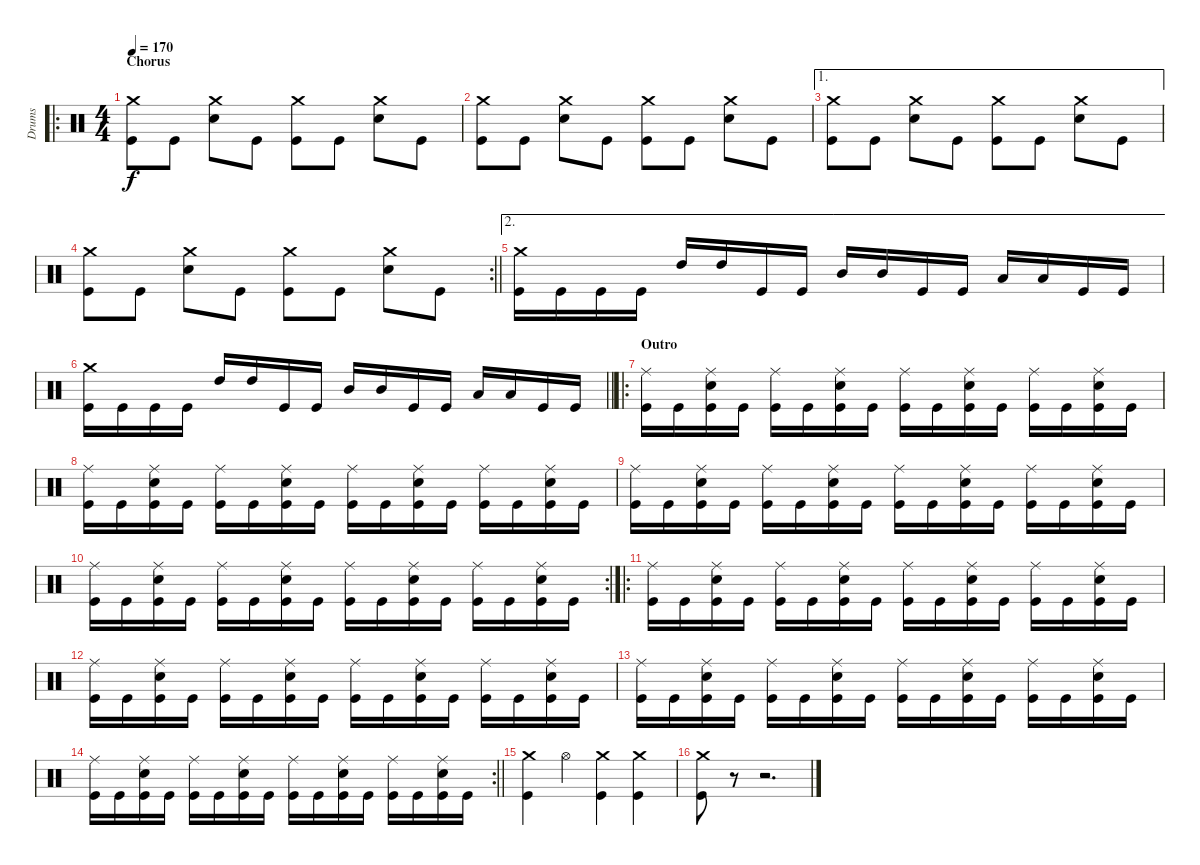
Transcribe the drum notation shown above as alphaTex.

\track ("Drums" "Drums") {instrument percussion}
\staff {score}
\articulation defaults
\ro
\ts (4 4)
\section ("" "Chorus")
\tempo 170
\clef neutral
\ks c
("Crash medium (hit)" "Kick (hit)").8{dy f} "Kick (hit)".8 ("Crash medium (hit)" "Snare (hit) 2").8 "Kick (hit)".8 ("Crash medium (hit)" "Kick (hit)").8 "Kick (hit)".8 ("Crash medium (hit)" "Snare (hit) 2").8 "Kick (hit)".8 |
("Crash medium (hit)" "Kick (hit)").8 "Kick (hit)".8 ("Crash medium (hit)" "Snare (hit) 2").8 "Kick (hit)".8 ("Crash medium (hit)" "Kick (hit)").8 "Kick (hit)".8 ("Crash medium (hit)" "Snare (hit) 2").8 "Kick (hit)".8 |
\ae 1
("Crash medium (hit)" "Kick (hit)").8 "Kick (hit)".8 ("Crash medium (hit)" "Snare (hit) 2").8 "Kick (hit)".8 ("Crash medium (hit)" "Kick (hit)").8 "Kick (hit)".8 ("Crash medium (hit)" "Snare (hit) 2").8 "Kick (hit)".8 |
\rc 2
\barLineRight lightlight
("Crash medium (hit)" "Kick (hit)").8 "Kick (hit)".8 ("Crash medium (hit)" "Snare (hit) 2").8 "Kick (hit)".8 ("Crash medium (hit)" "Kick (hit)").8 "Kick (hit)".8 ("Crash medium (hit)" "Snare (hit) 2").8 "Kick (hit)".8 |
\ae 2
("Crash medium (hit)" "Kick (hit)").16 "Kick (hit)".16 "Kick (hit)".16 "Kick (hit)".16 "High Tom (hit)".16 "High Tom (hit)".16 "Kick (hit)".16 "Kick (hit)".16 "Mid Tom (hit)".16 "Mid Tom (hit)".16 "Kick (hit)".16 "Kick (hit)".16 "Low Floor Tom (hit)".16 "Low Floor Tom (hit)".16 "Kick (hit)".16 "Kick (hit)".16 |
\barLineRight lightlight
("Crash medium (hit)" "Kick (hit)").16 "Kick (hit)".16 "Kick (hit)".16 "Kick (hit)".16 "High Tom (hit)".16 "High Tom (hit)".16 "Kick (hit)".16 "Kick (hit)".16 "Mid Tom (hit)".16 "Mid Tom (hit)".16 "Kick (hit)".16 "Kick (hit)".16 "Low Floor Tom (hit)".16 "Low Floor Tom (hit)".16 "Kick (hit)".16 "Kick (hit)".16 |
\ro
\section ("" "Outro")
("Ride (middle)" "Kick (hit)").16 "Kick (hit)".16 ("Ride (middle)" "Snare (hit) 2" "Kick (hit)").16 "Kick (hit)".16 ("Ride (middle)" "Kick (hit)").16 "Kick (hit)".16 ("Ride (middle)" "Snare (hit) 2" "Kick (hit)").16 "Kick (hit)".16 ("Ride (middle)" "Kick (hit)").16 "Kick (hit)".16 ("Ride (middle)" "Snare (hit) 2" "Kick (hit)").16 "Kick (hit)".16 ("Ride (middle)" "Kick (hit)").16 "Kick (hit)".16 ("Ride (middle)" "Snare (hit) 2" "Kick (hit)").16 "Kick (hit)".16 |
("Ride (middle)" "Kick (hit)").16 "Kick (hit)".16 ("Ride (middle)" "Snare (hit) 2" "Kick (hit)").16 "Kick (hit)".16 ("Ride (middle)" "Kick (hit)").16 "Kick (hit)".16 ("Ride (middle)" "Snare (hit) 2" "Kick (hit)").16 "Kick (hit)".16 ("Ride (middle)" "Kick (hit)").16 "Kick (hit)".16 ("Ride (middle)" "Snare (hit) 2" "Kick (hit)").16 "Kick (hit)".16 ("Ride (middle)" "Kick (hit)").16 "Kick (hit)".16 ("Ride (middle)" "Snare (hit) 2" "Kick (hit)").16 "Kick (hit)".16 |
("Ride (middle)" "Kick (hit)").16 "Kick (hit)".16 ("Ride (middle)" "Snare (hit) 2" "Kick (hit)").16 "Kick (hit)".16 ("Ride (middle)" "Kick (hit)").16 "Kick (hit)".16 ("Ride (middle)" "Snare (hit) 2" "Kick (hit)").16 "Kick (hit)".16 ("Ride (middle)" "Kick (hit)").16 "Kick (hit)".16 ("Ride (middle)" "Snare (hit) 2" "Kick (hit)").16 "Kick (hit)".16 ("Ride (middle)" "Kick (hit)").16 "Kick (hit)".16 ("Ride (middle)" "Snare (hit) 2" "Kick (hit)").16 "Kick (hit)".16 |
\rc 2
("Ride (middle)" "Kick (hit)").16 "Kick (hit)".16 ("Ride (middle)" "Snare (hit) 2" "Kick (hit)").16 "Kick (hit)".16 ("Ride (middle)" "Kick (hit)").16 "Kick (hit)".16 ("Ride (middle)" "Snare (hit) 2" "Kick (hit)").16 "Kick (hit)".16 ("Ride (middle)" "Kick (hit)").16 "Kick (hit)".16 ("Ride (middle)" "Snare (hit) 2" "Kick (hit)").16 "Kick (hit)".16 ("Ride (middle)" "Kick (hit)").16 "Kick (hit)".16 ("Ride (middle)" "Snare (hit) 2" "Kick (hit)").16 "Kick (hit)".16 |
\ro
("Ride (middle)" "Kick (hit)").16 "Kick (hit)".16 ("Ride (middle)" "Snare (hit) 2" "Kick (hit)").16 "Kick (hit)".16 ("Ride (middle)" "Kick (hit)").16 "Kick (hit)".16 ("Ride (middle)" "Snare (hit) 2" "Kick (hit)").16 "Kick (hit)".16 ("Ride (middle)" "Kick (hit)").16 "Kick (hit)".16 ("Ride (middle)" "Snare (hit) 2" "Kick (hit)").16 "Kick (hit)".16 ("Ride (middle)" "Kick (hit)").16 "Kick (hit)".16 ("Ride (middle)" "Snare (hit) 2" "Kick (hit)").16 "Kick (hit)".16 |
("Ride (middle)" "Kick (hit)").16 "Kick (hit)".16 ("Ride (middle)" "Snare (hit) 2" "Kick (hit)").16 "Kick (hit)".16 ("Ride (middle)" "Kick (hit)").16 "Kick (hit)".16 ("Ride (middle)" "Snare (hit) 2" "Kick (hit)").16 "Kick (hit)".16 ("Ride (middle)" "Kick (hit)").16 "Kick (hit)".16 ("Ride (middle)" "Snare (hit) 2" "Kick (hit)").16 "Kick (hit)".16 ("Ride (middle)" "Kick (hit)").16 "Kick (hit)".16 ("Ride (middle)" "Snare (hit) 2" "Kick (hit)").16 "Kick (hit)".16 |
("Ride (middle)" "Kick (hit)").16 "Kick (hit)".16 ("Ride (middle)" "Snare (hit) 2" "Kick (hit)").16 "Kick (hit)".16 ("Ride (middle)" "Kick (hit)").16 "Kick (hit)".16 ("Ride (middle)" "Snare (hit) 2" "Kick (hit)").16 "Kick (hit)".16 ("Ride (middle)" "Kick (hit)").16 "Kick (hit)".16 ("Ride (middle)" "Snare (hit) 2" "Kick (hit)").16 "Kick (hit)".16 ("Ride (middle)" "Kick (hit)").16 "Kick (hit)".16 ("Ride (middle)" "Snare (hit) 2" "Kick (hit)").16 "Kick (hit)".16 |
\rc 2
\barLineRight lightlight
("Ride (middle)" "Kick (hit)").16 "Kick (hit)".16 ("Ride (middle)" "Snare (hit) 2" "Kick (hit)").16 "Kick (hit)".16 ("Ride (middle)" "Kick (hit)").16 "Kick (hit)".16 ("Ride (middle)" "Snare (hit) 2" "Kick (hit)").16 "Kick (hit)".16 ("Ride (middle)" "Kick (hit)").16 "Kick (hit)".16 ("Ride (middle)" "Snare (hit) 2" "Kick (hit)").16 "Kick (hit)".16 ("Ride (middle)" "Kick (hit)").16 "Kick (hit)".16 ("Ride (middle)" "Snare (hit) 2" "Kick (hit)").16 "Kick (hit)".16 |
("Crash medium (hit)" "Kick (hit)").4 "Hi-Hat (open)".4 ("Crash medium (hit)" "Kick (hit)").4 ("Crash medium (hit)" "Kick (hit)").4 |
("Crash medium (hit)" "Kick (hit)").8 r.8 r.2{d}
